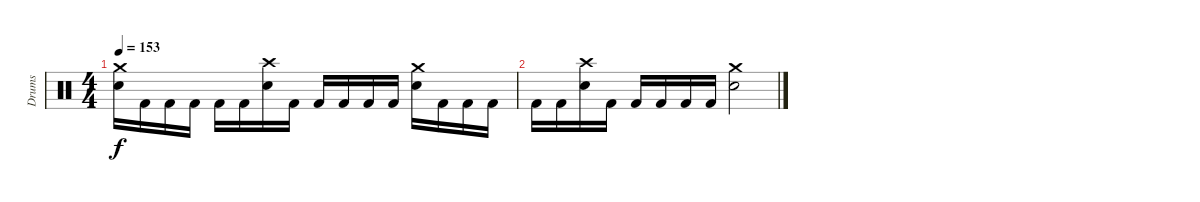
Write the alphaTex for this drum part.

\track ("Drums" "Drums") {instrument percussion}
\staff {score}
\articulation defaults
\ts (4 4)
\tempo 153
\clef neutral
\ks c
("Crash medium (hit)" "Snare (hit) 2").16{dy f} "Kick (hit) 2".16 "Kick (hit) 2".16 "Kick (hit) 2".16 "Kick (hit) 2".16 "Kick (hit) 2".16 ("Crash high (hit)" "Snare (hit) 2").16 "Kick (hit) 2".16 "Kick (hit) 2".16 "Kick (hit) 2".16 "Kick (hit) 2".16 "Kick (hit) 2".16 ("Crash medium (hit)" "Snare (hit) 2").16 "Kick (hit) 2".16 "Kick (hit) 2".16 "Kick (hit) 2".16 |
"Kick (hit) 2".16 "Kick (hit) 2".16 ("Crash high (hit)" "Snare (hit) 2").16 "Kick (hit) 2".16 "Kick (hit) 2".16 "Kick (hit) 2".16 "Kick (hit) 2".16 "Kick (hit) 2".16 ("Crash medium (hit)" "Snare (hit) 2").2
